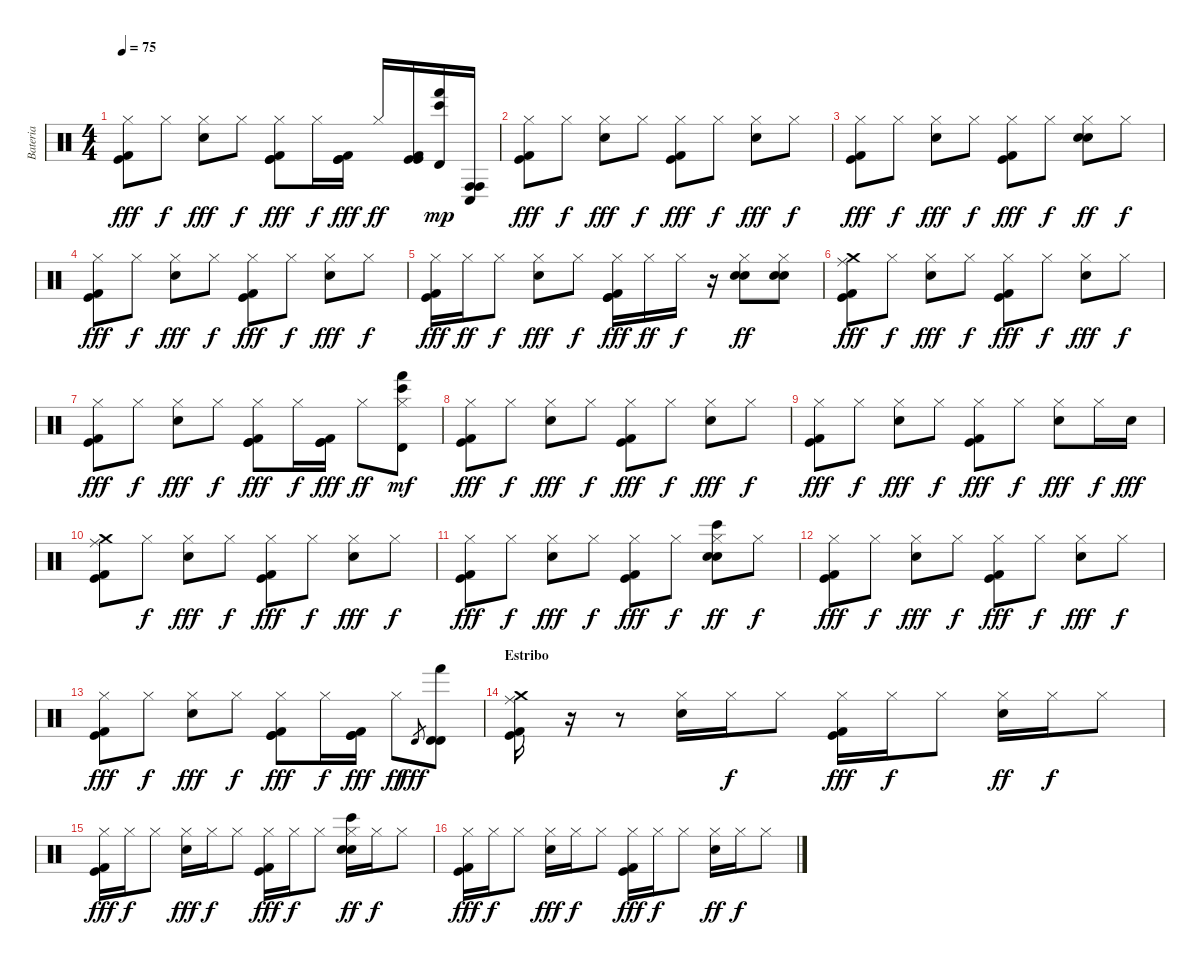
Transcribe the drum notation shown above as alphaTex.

\track ("Bateria" "Bateria") {instrument percussion}
\staff {score}
\articulation defaults
\ts (4 4)
\tempo 75
\clef neutral
\ks c
("Hi-Hat (closed)" "Kick (hit) 2" "Kick (hit)").8{dy fff} "Hi-Hat (closed)".8{dy f} ("Hi-Hat (closed)" "Snare (hit) 2").8{dy fff} "Hi-Hat (closed)".8{dy f} ("Hi-Hat (closed)" "Kick (hit) 2" "Kick (hit)" "Kick (hit)").8{dy fff} "Hi-Hat (closed)".16{dy f} ("Kick (hit) 2" "Kick (hit)" "Kick (hit)").16{dy fff} "Hi-Hat (closed)".16{dy ff} ("Kick (hit) 2" "Kick (hit)" "Kick (hit)").16 ("Hand (hit)" "Bongo High (hit)" "Timbale high (hit)").16{dy mp} ("Conga high (hit)" "Conga high (hit)" "Conga low (hit)").16 |
("Hi-Hat (closed)" "Kick (hit) 2" "Kick (hit)").8{dy fff} "Hi-Hat (closed)".8{dy f} ("Hi-Hat (closed)" "Snare (hit) 2").8{dy fff} "Hi-Hat (closed)".8{dy f} ("Hi-Hat (closed)" "Kick (hit) 2" "Kick (hit)").8{dy fff} "Hi-Hat (closed)".8{dy f} ("Hi-Hat (closed)" "Snare (hit) 2").8{dy fff} "Hi-Hat (closed)".8{dy f} |
("Hi-Hat (closed)" "Kick (hit) 2" "Kick (hit)").8{dy fff} "Hi-Hat (closed)".8{dy f} ("Hi-Hat (closed)" "Snare (hit) 2").8{dy fff} "Hi-Hat (closed)".8{dy f} ("Hi-Hat (closed)" "Kick (hit) 2" "Kick (hit)").8{dy fff} "Hi-Hat (closed)".8{dy f} ("Hi-Hat (closed)" "Snare (hit) 2" "Electric Snare (hit)").8{dy ff} "Hi-Hat (closed)".8{dy f} |
("Hi-Hat (closed)" "Kick (hit) 2" "Kick (hit)").8{dy fff} "Hi-Hat (closed)".8{dy f} ("Hi-Hat (closed)" "Snare (hit) 2").8{dy fff} "Hi-Hat (closed)".8{dy f} ("Hi-Hat (closed)" "Kick (hit) 2" "Kick (hit)").8{dy fff} "Hi-Hat (closed)".8{dy f} ("Hi-Hat (closed)" "Snare (hit) 2").8{dy fff} "Hi-Hat (closed)".8{dy f} |
("Hi-Hat (closed)" "Kick (hit) 2" "Kick (hit)").16{dy fff} "Hi-Hat (closed)".16{dy ff} "Hi-Hat (closed)".8{dy f} ("Hi-Hat (closed)" "Snare (hit) 2").8{dy fff} "Hi-Hat (closed)".8{dy f} ("Hi-Hat (closed)" "Kick (hit) 2" "Kick (hit)" "Kick (hit)").16{dy fff} "Hi-Hat (closed)".16{dy ff} "Hi-Hat (closed)".16{dy f} r.16 ("Hi-Hat (closed)" "Snare (hit) 2" "Electric Snare (hit)").8{dy ff} ("Hi-Hat (closed)" "Snare (hit) 2" "Electric Snare (hit)").8 |
("Crash medium (hit)" "Ride (middle)" "Kick (hit) 2" "Kick (hit)").8{dy fff} "Hi-Hat (closed)".8{dy f} ("Hi-Hat (closed)" "Snare (hit) 2").8{dy fff} "Hi-Hat (closed)".8{dy f} ("Hi-Hat (closed)" "Kick (hit) 2" "Kick (hit)").8{dy fff} "Hi-Hat (closed)".8{dy f} ("Hi-Hat (closed)" "Snare (hit) 2").8{dy fff} "Hi-Hat (closed)".8{dy f} |
("Hi-Hat (closed)" "Kick (hit) 2" "Kick (hit)").8{dy fff} "Hi-Hat (closed)".8{dy f} ("Hi-Hat (closed)" "Snare (hit) 2").8{dy fff} "Hi-Hat (closed)".8{dy f} ("Hi-Hat (closed)" "Kick (hit) 2" "Kick (hit)" "Kick (hit)").8{dy fff} "Hi-Hat (closed)".16{dy f} ("Kick (hit) 2" "Kick (hit)" "Kick (hit)").16{dy fff} "Hi-Hat (closed)".8{dy ff} ("Hi-Hat (closed)" "Hand (hit)" "Bongo High (hit)" "Timbale high (hit)").8{dy mf} |
("Hi-Hat (closed)" "Kick (hit) 2" "Kick (hit)").8{dy fff} "Hi-Hat (closed)".8{dy f} ("Hi-Hat (closed)" "Snare (hit) 2").8{dy fff} "Hi-Hat (closed)".8{dy f} ("Hi-Hat (closed)" "Kick (hit) 2" "Kick (hit)").8{dy fff} "Hi-Hat (closed)".8{dy f} ("Hi-Hat (closed)" "Snare (hit) 2").8{dy fff} "Hi-Hat (closed)".8{dy f} |
("Hi-Hat (closed)" "Kick (hit) 2" "Kick (hit)").8{dy fff} "Hi-Hat (closed)".8{dy f} ("Hi-Hat (closed)" "Snare (hit) 2").8{dy fff} "Hi-Hat (closed)".8{dy f} ("Hi-Hat (closed)" "Kick (hit) 2" "Kick (hit)").8{dy fff} "Hi-Hat (closed)".8{dy f} ("Hi-Hat (closed)" "Snare (hit) 2").8{dy fff} "Hi-Hat (closed)".16{dy f} "Snare (hit) 2".16{dy fff} |
("Crash medium (hit)" "Ride (middle)" "Kick (hit) 2" "Kick (hit)").8 "Hi-Hat (closed)".8{dy f} ("Hi-Hat (closed)" "Snare (hit) 2").8{dy fff} "Hi-Hat (closed)".8{dy f} ("Hi-Hat (closed)" "Kick (hit) 2" "Kick (hit)").8{dy fff} "Hi-Hat (closed)".8{dy f} ("Hi-Hat (closed)" "Snare (hit) 2").8{dy fff} "Hi-Hat (closed)".8{dy f} |
("Hi-Hat (closed)" "Kick (hit) 2" "Kick (hit)").8{dy fff} "Hi-Hat (closed)".8{dy f} ("Hi-Hat (closed)" "Snare (hit) 2").8{dy fff} "Hi-Hat (closed)".8{dy f} ("Hi-Hat (closed)" "Kick (hit) 2" "Kick (hit)").8{dy fff} "Hi-Hat (closed)".8{dy f} ("Hi-Hat (closed)" "Bongo High (hit)" "Snare (hit) 2" "Electric Snare (hit)").8{dy ff} "Hi-Hat (closed)".8{dy f} |
("Hi-Hat (closed)" "Kick (hit) 2" "Kick (hit)").8{dy fff} "Hi-Hat (closed)".8{dy f} ("Hi-Hat (closed)" "Snare (hit) 2").8{dy fff} "Hi-Hat (closed)".8{dy f} ("Hi-Hat (closed)" "Kick (hit) 2" "Kick (hit)").8{dy fff} "Hi-Hat (closed)".8{dy f} ("Hi-Hat (closed)" "Snare (hit) 2").8{dy fff} "Hi-Hat (closed)".8{dy f} |
("Hi-Hat (closed)" "Kick (hit) 2" "Kick (hit)").8{dy fff} "Hi-Hat (closed)".8{dy f} ("Hi-Hat (closed)" "Snare (hit) 2").8{dy fff} "Hi-Hat (closed)".8{dy f} ("Hi-Hat (closed)" "Kick (hit) 2" "Kick (hit)" "Kick (hit)").8{dy fff} "Hi-Hat (closed)".16{dy f} ("Kick (hit) 2" "Kick (hit)" "Kick (hit)").16{dy fff} "Hi-Hat (closed)".8{dy ff} "Timbale high (hit)".8{gr dy fff} ("Timbale high (hit)" "Hand (hit)" "Timbale high (hit)").8 |
\section ("" "Estribo")
("Crash medium (hit)" "Ride (middle)" "Kick (hit) 2" "Kick (hit)").16 r.16 r.8 ("Hi-Hat (closed)" "Snare (hit) 2").16 "Hi-Hat (closed)".16{dy f} "Hi-Hat (closed)".8 ("Hi-Hat (closed)" "Kick (hit) 2" "Kick (hit)").16{dy fff} "Hi-Hat (closed)".16{dy f} "Hi-Hat (closed)".8 ("Hi-Hat (closed)" "Snare (hit) 2").16{dy ff} "Hi-Hat (closed)".16{dy f} "Hi-Hat (closed)".8 |
("Hi-Hat (closed)" "Kick (hit) 2" "Kick (hit)").16{dy fff} "Hi-Hat (closed)".16{dy f} "Hi-Hat (closed)".8 ("Hi-Hat (closed)" "Snare (hit) 2").16{dy fff} "Hi-Hat (closed)".16{dy f} "Hi-Hat (closed)".8 ("Hi-Hat (closed)" "Kick (hit) 2" "Kick (hit)").16{dy fff} "Hi-Hat (closed)".16{dy f} "Hi-Hat (closed)".8 ("Hi-Hat (closed)" "Bongo High (hit)" "Snare (hit) 2" "Electric Snare (hit)").16{dy ff} "Hi-Hat (closed)".16{dy f} "Hi-Hat (closed)".8 |
("Hi-Hat (closed)" "Kick (hit) 2" "Kick (hit)").16{dy fff} "Hi-Hat (closed)".16{dy f} "Hi-Hat (closed)".8 ("Hi-Hat (closed)" "Snare (hit) 2").16{dy fff} "Hi-Hat (closed)".16{dy f} "Hi-Hat (closed)".8 ("Hi-Hat (closed)" "Kick (hit) 2" "Kick (hit)").16{dy fff} "Hi-Hat (closed)".16{dy f} "Hi-Hat (closed)".8 ("Hi-Hat (closed)" "Snare (hit) 2").16{dy ff} "Hi-Hat (closed)".16{dy f} "Hi-Hat (closed)".8
